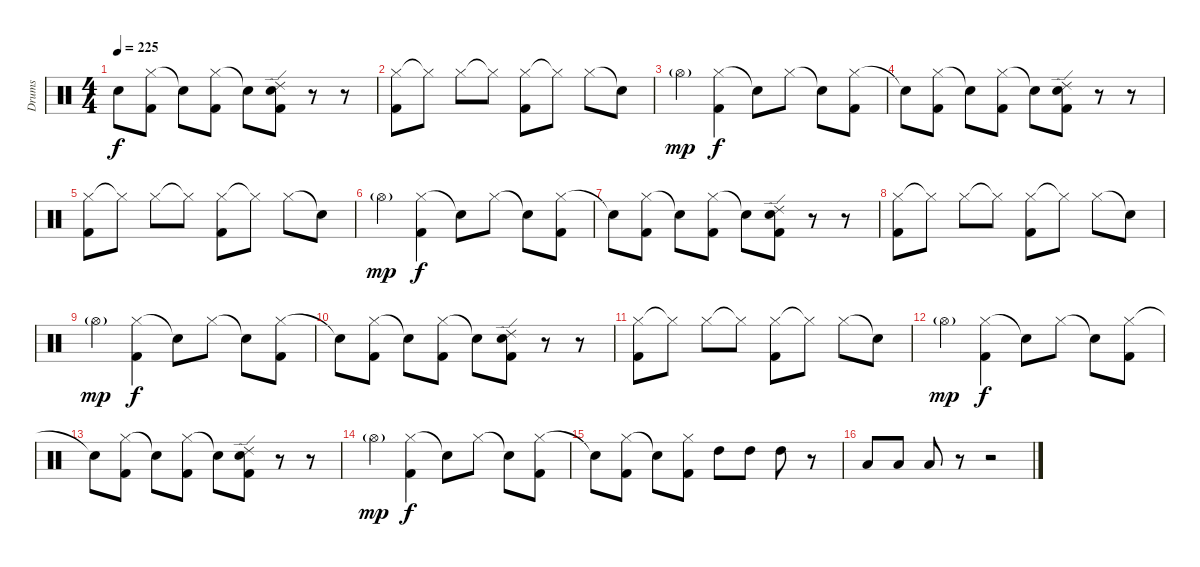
\track ("Drums" "Drums") {instrument percussion}
\staff {score}
\articulation defaults
\ts (4 4)
\tempo 225
\clef neutral
\ks c "Snare (hit)"{t}.8{dy f}
("Hi-Hat (closed)" "Kick (hit) 2").8 "Snare (hit)"{t}.8 ("Hi-Hat (closed)" "Kick (hit) 2").8 "Snare (hit)"{t}.8 ("Ride (edge) 2" "Snare (hit) 2" "Kick (hit) 2").8 r.8 r.8 |
("Hi-Hat (closed)" "Kick (hit) 2").8 "Hi-Hat (closed)"{t}.8 "Hi-Hat (closed)".8 "Hi-Hat (closed)"{t}.8 ("Hi-Hat (closed)" "Kick (hit) 2").8 "Hi-Hat (closed)"{t}.8 "Hi-Hat (closed)".8 "Snare (hit)"{t}.8 |
"Hi-Hat (open)"{g}.4{dy mp} ("Hi-Hat (closed)" "Kick (hit) 2").4{dy f} "Snare (hit)"{t}.8 "Hi-Hat (closed)".8 "Snare (hit)"{t}.8 ("Hi-Hat (closed)" "Kick (hit) 2").8 |
"Snare (hit)"{t}.8 ("Hi-Hat (closed)" "Kick (hit) 2").8 "Snare (hit)"{t}.8 ("Hi-Hat (closed)" "Kick (hit) 2").8 "Snare (hit)"{t}.8 ("Ride (edge) 2" "Snare (hit) 2" "Kick (hit) 2").8 r.8 r.8 |
("Hi-Hat (closed)" "Kick (hit) 2").8 "Hi-Hat (closed)"{t}.8 "Hi-Hat (closed)".8 "Hi-Hat (closed)"{t}.8 ("Hi-Hat (closed)" "Kick (hit) 2").8 "Hi-Hat (closed)"{t}.8 "Hi-Hat (closed)".8 "Snare (hit)"{t}.8 |
"Hi-Hat (open)"{g}.4{dy mp} ("Hi-Hat (closed)" "Kick (hit) 2").4{dy f} "Snare (hit)"{t}.8 "Hi-Hat (closed)".8 "Snare (hit)"{t}.8 ("Hi-Hat (closed)" "Kick (hit) 2").8 |
"Snare (hit)"{t}.8 ("Hi-Hat (closed)" "Kick (hit) 2").8 "Snare (hit)"{t}.8 ("Hi-Hat (closed)" "Kick (hit) 2").8 "Snare (hit)"{t}.8 ("Ride (edge) 2" "Snare (hit) 2" "Kick (hit) 2").8 r.8 r.8 |
("Hi-Hat (closed)" "Kick (hit) 2").8 "Hi-Hat (closed)"{t}.8 "Hi-Hat (closed)".8 "Hi-Hat (closed)"{t}.8 ("Hi-Hat (closed)" "Kick (hit) 2").8 "Hi-Hat (closed)"{t}.8 "Hi-Hat (closed)".8 "Snare (hit)"{t}.8 |
"Hi-Hat (open)"{g}.4{dy mp} ("Hi-Hat (closed)" "Kick (hit) 2").4{dy f} "Snare (hit)"{t}.8 "Hi-Hat (closed)".8 "Snare (hit)"{t}.8 ("Hi-Hat (closed)" "Kick (hit) 2").8 |
"Snare (hit)"{t}.8 ("Hi-Hat (closed)" "Kick (hit) 2").8 "Snare (hit)"{t}.8 ("Hi-Hat (closed)" "Kick (hit) 2").8 "Snare (hit)"{t}.8 ("Ride (edge) 2" "Snare (hit) 2" "Kick (hit) 2").8 r.8 r.8 |
("Hi-Hat (closed)" "Kick (hit) 2").8 "Hi-Hat (closed)"{t}.8 "Hi-Hat (closed)".8 "Hi-Hat (closed)"{t}.8 ("Hi-Hat (closed)" "Kick (hit) 2").8 "Hi-Hat (closed)"{t}.8 "Hi-Hat (closed)".8 "Snare (hit)"{t}.8 |
"Hi-Hat (open)"{g}.4{dy mp} ("Hi-Hat (closed)" "Kick (hit) 2").4{dy f} "Snare (hit)"{t}.8 "Hi-Hat (closed)".8 "Snare (hit)"{t}.8 ("Hi-Hat (closed)" "Kick (hit) 2").8 |
"Snare (hit)"{t}.8 ("Hi-Hat (closed)" "Kick (hit) 2").8 "Snare (hit)"{t}.8 ("Hi-Hat (closed)" "Kick (hit) 2").8 "Snare (hit)"{t}.8 ("Ride (edge) 2" "Snare (hit) 2" "Kick (hit) 2").8 r.8 r.8 |
"Hi-Hat (open)"{g}.4{dy mp} ("Hi-Hat (closed)" "Kick (hit) 2").4{dy f} "Snare (hit)"{t}.8 "Hi-Hat (closed)".8 "Snare (hit)"{t}.8 ("Hi-Hat (closed)" "Kick (hit) 2").8 |
"Snare (hit)"{t}.8 ("Hi-Hat (closed)" "Kick (hit) 2").8 "Snare (hit)"{t}.8 ("Hi-Hat (closed)" "Kick (hit) 2").8 "High Tom (hit)".8 "High Tom (hit)".8 "High Tom (hit)".8 r.8 |
"Low Tom (hit)".8 "Low Tom (hit)".8 "Low Tom (hit)".8 r.8 r.2
